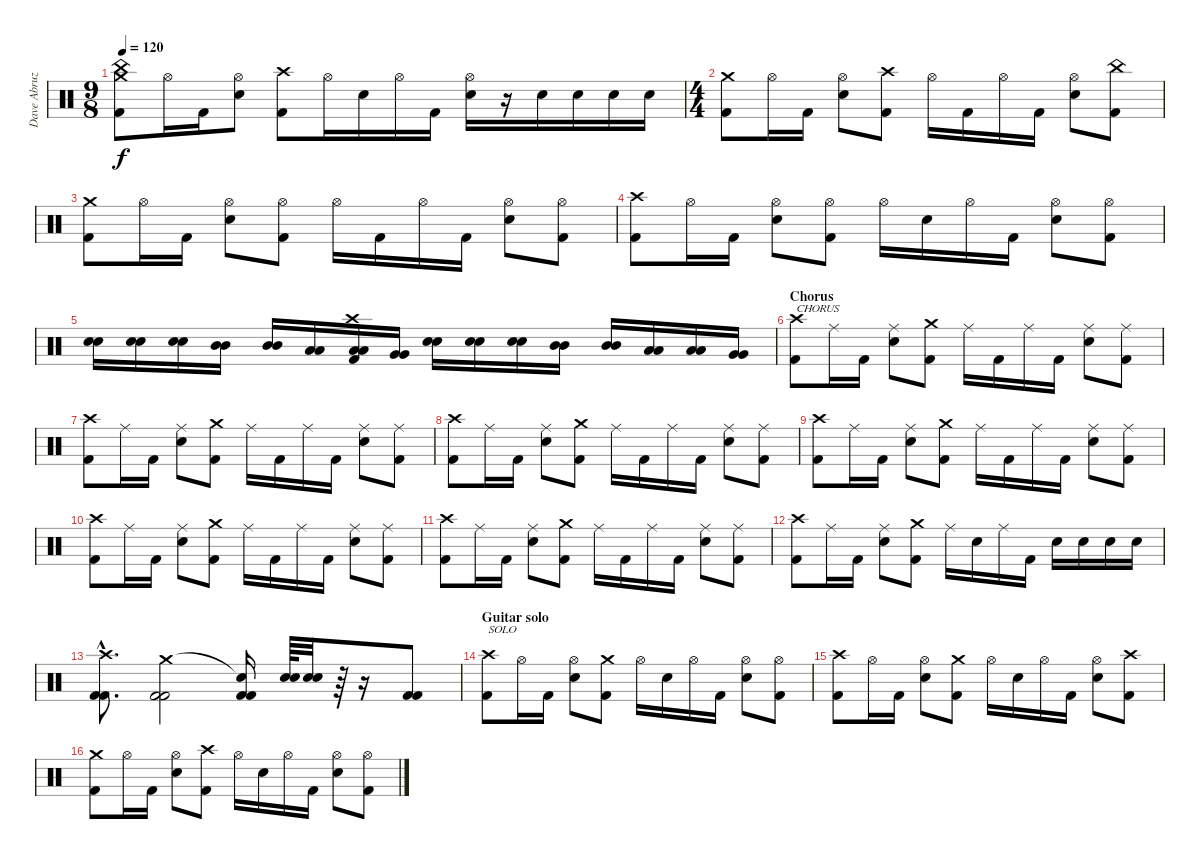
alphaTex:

\track ("Dave Abruzzesse" "Dave Abruz") {instrument percussion}
\staff {score}
\articulation defaults
\ts (9 8)
\tempo 120
\clef neutral
\ks c
("China (hit)" "Crash medium (hit)" "Kick (hit) 2").8{dy f} "Hi-Hat (open)".16 "Kick (hit) 2".16 ("Hi-Hat (open)" "Electric Snare (hit)").8 ("Crash high (hit)" "Kick (hit) 2").8 "Hi-Hat (open)".16 "Electric Snare (hit)".16 "Hi-Hat (open)".16 "Kick (hit) 2".16 ("Hi-Hat (open)" "Electric Snare (hit)").16 r.16 "Electric Snare (hit)".16 "Electric Snare (hit)".16 "Electric Snare (hit)".16 "Electric Snare (hit)".16 |
\ts (4 4)
("Crash medium (hit)" "Kick (hit) 2").8 "Hi-Hat (open)".16 "Kick (hit) 2".16 ("Hi-Hat (open)" "Electric Snare (hit)").8 ("Crash high (hit)" "Kick (hit) 2").8 "Hi-Hat (open)".16 "Kick (hit) 2".16 "Hi-Hat (open)".16 "Kick (hit) 2".16 ("Hi-Hat (open)" "Electric Snare (hit)").8 ("China (hit)" "Kick (hit) 2").8 |
("Crash medium (hit)" "Kick (hit) 2").8 "Hi-Hat (open)".16 "Kick (hit) 2".16 ("Hi-Hat (open)" "Electric Snare (hit)").8 ("Hi-Hat (open)" "Kick (hit) 2").8 "Hi-Hat (open)".16 "Kick (hit) 2".16 "Hi-Hat (open)".16 "Kick (hit) 2".16 ("Hi-Hat (open)" "Electric Snare (hit)").8 ("Hi-Hat (open)" "Kick (hit) 2").8 |
("Crash high (hit)" "Kick (hit) 2").8 "Hi-Hat (open)".16 "Kick (hit) 2".16 ("Hi-Hat (open)" "Electric Snare (hit)").8 ("Hi-Hat (open)" "Kick (hit) 2").8 "Hi-Hat (open)".16 "Electric Snare (hit)".16 "Hi-Hat (open)".16 "Kick (hit) 2".16 ("Hi-Hat (open)" "Electric Snare (hit)").8 ("Hi-Hat (open)" "Kick (hit) 2").8 |
("Electric Snare (hit)" "Electric Snare (hit)").16 ("Electric Snare (hit)" "Electric Snare (hit)").16 ("Electric Snare (hit)" "Electric Snare (hit)").16 ("Mid Tom (hit)" "Mid Tom (hit)").16 ("Mid Tom (hit)" "Mid Tom (hit)").16 ("Low Tom (hit)" "Low Tom (hit)").16 ("Crash high (hit)" "Kick (hit) 2" "Low Tom (hit)" "Low Tom (hit)").16 ("Very Low Tom (hit)" "Very Low Tom (hit)").16 ("Electric Snare (hit)" "Electric Snare (hit)").16 ("Electric Snare (hit)" "Electric Snare (hit)").16 ("Electric Snare (hit)" "Electric Snare (hit)").16 ("Mid Tom (hit)" "Mid Tom (hit)").16 ("Mid Tom (hit)" "Mid Tom (hit)").16 ("Low Tom (hit)" "Low Tom (hit)").16 ("Low Tom (hit)" "Low Tom (hit)").16 ("Very Low Tom (hit)" "Very Low Tom (hit)").16 |
\section ("" "Chorus")
("Crash high (hit)" "Kick (hit) 2").8{txt "CHORUS"} "Ride (middle)".16 "Kick (hit) 2".16 ("Ride (middle)" "Electric Snare (hit)").8 ("Crash medium (hit)" "Kick (hit) 2").8 "Ride (middle)".16 "Kick (hit) 2".16 "Ride (middle)".16 "Kick (hit) 2".16 ("Ride (middle)" "Electric Snare (hit)").8 ("Ride (middle)" "Kick (hit) 2").8 |
("Crash high (hit)" "Kick (hit) 2").8 "Ride (middle)".16 "Kick (hit) 2".16 ("Ride (middle)" "Electric Snare (hit)").8 ("Crash medium (hit)" "Kick (hit) 2").8 "Ride (middle)".16 "Kick (hit) 2".16 "Ride (middle)".16 "Kick (hit) 2".16 ("Ride (middle)" "Electric Snare (hit)").8 ("Ride (middle)" "Kick (hit) 2").8 |
("Crash high (hit)" "Kick (hit) 2").8 "Ride (middle)".16 "Kick (hit) 2".16 ("Ride (middle)" "Electric Snare (hit)").8 ("Crash medium (hit)" "Kick (hit) 2").8 "Ride (middle)".16 "Kick (hit) 2".16 "Ride (middle)".16 "Kick (hit) 2".16 ("Ride (middle)" "Electric Snare (hit)").8 ("Ride (middle)" "Kick (hit) 2").8 |
("Crash high (hit)" "Kick (hit) 2").8 "Ride (middle)".16 "Kick (hit) 2".16 ("Ride (middle)" "Electric Snare (hit)").8 ("Crash medium (hit)" "Kick (hit) 2").8 "Ride (middle)".16 "Kick (hit) 2".16 "Ride (middle)".16 "Kick (hit) 2".16 ("Ride (middle)" "Electric Snare (hit)").8 ("Ride (middle)" "Kick (hit) 2").8 |
("Crash high (hit)" "Kick (hit) 2").8 "Ride (middle)".16 "Kick (hit) 2".16 ("Ride (middle)" "Electric Snare (hit)").8 ("Crash medium (hit)" "Kick (hit) 2").8 "Ride (middle)".16 "Kick (hit) 2".16 "Ride (middle)".16 "Kick (hit) 2".16 ("Ride (middle)" "Electric Snare (hit)").8 ("Ride (middle)" "Kick (hit) 2").8 |
("Crash high (hit)" "Kick (hit) 2").8 "Ride (middle)".16 "Kick (hit) 2".16 ("Ride (middle)" "Electric Snare (hit)").8 ("Crash medium (hit)" "Kick (hit) 2").8 "Ride (middle)".16 "Kick (hit) 2".16 "Ride (middle)".16 "Kick (hit) 2".16 ("Ride (middle)" "Electric Snare (hit)").8 ("Ride (middle)" "Kick (hit) 2").8 |
("Crash high (hit)" "Kick (hit) 2").8 "Ride (middle)".16 "Kick (hit) 2".16 ("Ride (middle)" "Electric Snare (hit)").8 ("Crash medium (hit)" "Kick (hit) 2").8 "Ride (middle)".16 "Electric Snare (hit)".16 "Ride (middle)".16 "Kick (hit) 2".16 "Electric Snare (hit)".16 "Electric Snare (hit)".16 "Electric Snare (hit)".16 "Electric Snare (hit)".16 |
("Crash high (hit)"{hac} "Kick (hit) 2"{hac} "Kick (hit) 2"{hac}).8{d} ("Crash medium (hit)" "Kick (hit) 2" "Kick (hit) 2").2 ("Snare (hit)"{t} "Kick (hit) 2" "Kick (hit) 2").16 ("Electric Snare (hit)" "Electric Snare (hit)").64 ("Electric Snare (hit)" "Electric Snare (hit)").32 r.64 r.16 ("Kick (hit) 2" "Kick (hit) 2").8 |
\section ("" "Guitar solo")
("Crash high (hit)" "Kick (hit) 2").8{txt "SOLO"} "Hi-Hat (open)".16 "Kick (hit) 2".16 ("Hi-Hat (open)" "Electric Snare (hit)").8 ("Crash medium (hit)" "Kick (hit) 2").8 "Hi-Hat (open)".16 "Electric Snare (hit)".16 "Hi-Hat (open)".16 "Kick (hit) 2".16 ("Hi-Hat (open)" "Electric Snare (hit)").8 ("Hi-Hat (open)" "Kick (hit) 2").8 |
("Crash high (hit)" "Kick (hit) 2").8 "Hi-Hat (open)".16 "Kick (hit) 2".16 ("Hi-Hat (open)" "Electric Snare (hit)").8 ("Crash medium (hit)" "Kick (hit) 2").8 "Hi-Hat (open)".16 "Electric Snare (hit)".16 "Hi-Hat (open)".16 "Kick (hit) 2".16 ("Hi-Hat (open)" "Electric Snare (hit)").8 ("Crash high (hit)" "Kick (hit) 2").8 |
("Crash medium (hit)" "Kick (hit) 2").8 "Hi-Hat (open)".16 "Kick (hit) 2".16 ("Hi-Hat (open)" "Electric Snare (hit)").8 ("Crash high (hit)" "Kick (hit) 2").8 "Hi-Hat (open)".16 "Electric Snare (hit)".16 "Hi-Hat (open)".16 "Kick (hit) 2".16 ("Hi-Hat (open)" "Electric Snare (hit)").8 ("Hi-Hat (open)" "Kick (hit) 2").8
